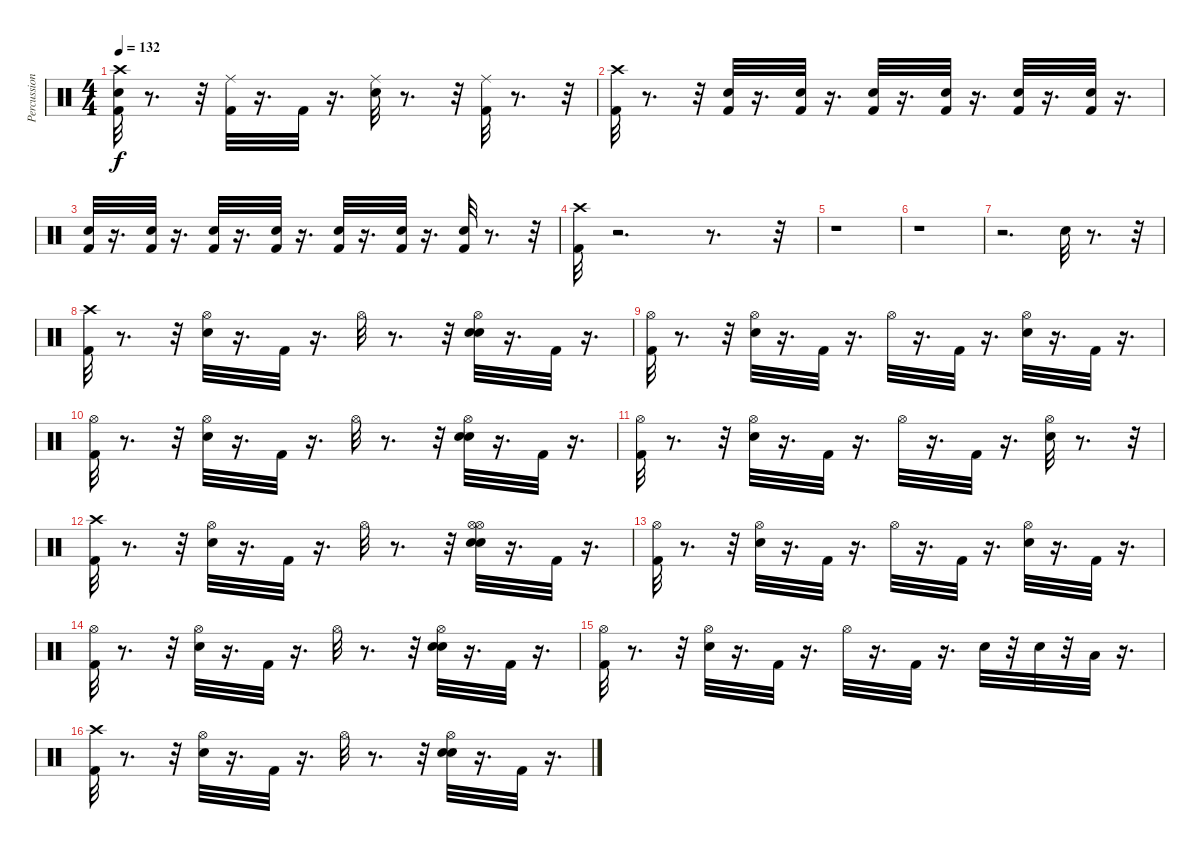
\track ("Percussion" "Percussion") {instrument percussion}
\staff {score}
\articulation defaults
\ts (4 4)
\tempo 132
\clef neutral
\ks c
("Kick (hit) 2" "Snare (hit) 2" "Crash high (hit)").32{dy f} r.8{d} r.32 ("Kick (hit) 2" "Ride (middle)").32 r.16{d} "Kick (hit) 2".32 r.16{d} ("Snare (hit) 2" "Ride (middle)").32 r.8{d} r.32 ("Ride (middle)" "Kick (hit) 2").32 r.8{d} r.32 |
("Kick (hit) 2" "Crash high (hit)").32 r.8{d} r.32 ("Kick (hit) 2" "Snare (hit) 2").32 r.16{d} ("Kick (hit) 2" "Snare (hit) 2").32 r.16{d} ("Kick (hit) 2" "Snare (hit) 2").32 r.16{d} ("Kick (hit) 2" "Snare (hit) 2").32 r.16{d} ("Kick (hit) 2" "Snare (hit) 2").32 r.16{d} ("Kick (hit) 2" "Snare (hit) 2").32 r.16{d} |
("Snare (hit) 2" "Kick (hit) 2").32 r.16{d} ("Kick (hit) 2" "Snare (hit) 2").32 r.16{d} ("Kick (hit) 2" "Snare (hit) 2").32 r.16{d} ("Kick (hit) 2" "Snare (hit) 2").32 r.16{d} ("Snare (hit) 2" "Kick (hit) 2").32 r.16{d} ("Kick (hit) 2" "Snare (hit) 2").32 r.16{d} ("Kick (hit) 2" "Snare (hit) 2").32 r.8{d} r.32 |
("Kick (hit) 2" "Crash high (hit)").32 r.2{d} r.8{d} r.32 |
r.1 |
r.1 |
r.2{d} "Snare (hit) 2".32 r.8{d} r.32 |
("Kick (hit) 2" "Crash high (hit)").32 r.8{d} r.32 ("Snare (hit) 2" "Hi-Hat (open)").32 r.16{d} "Kick (hit) 2".32 r.16{d} "Hi-Hat (open)".32 r.8{d} r.32 ("Snare (hit) 2" "Hi-Hat (open)" "Snare (hit) 2").32 r.16{d} "Kick (hit) 2".32 r.16{d} |
("Kick (hit) 2" "Hi-Hat (open)").32 r.8{d} r.32 ("Snare (hit) 2" "Hi-Hat (open)").32 r.16{d} "Kick (hit) 2".32 r.16{d} "Hi-Hat (open)".32 r.16{d} "Kick (hit) 2".32 r.16{d} ("Hi-Hat (open)" "Snare (hit) 2").32 r.16{d} "Kick (hit) 2".32 r.16{d} |
("Hi-Hat (open)" "Kick (hit) 2").32 r.8{d} r.32 ("Snare (hit) 2" "Hi-Hat (open)").32 r.16{d} "Kick (hit) 2".32 r.16{d} "Hi-Hat (open)".32 r.8{d} r.32 ("Snare (hit) 2" "Hi-Hat (open)" "Snare (hit) 2").32 r.16{d} "Kick (hit) 2".32 r.16{d} |
("Hi-Hat (open)" "Kick (hit) 2").32 r.8{d} r.32 ("Snare (hit) 2" "Hi-Hat (open)").32 r.16{d} "Kick (hit) 2".32 r.16{d} "Hi-Hat (open)".32 r.16{d} "Kick (hit) 2".32 r.16{d} ("Snare (hit) 2" "Hi-Hat (open)").32 r.8{d} r.32 |
("Kick (hit) 2" "Crash high (hit)").32 r.8{d} r.32 ("Snare (hit) 2" "Hi-Hat (open)").32 r.16{d} "Kick (hit) 2".32 r.16{d} "Hi-Hat (open)".32 r.8{d} r.32 ("Snare (hit) 2" "Hi-Hat (open)" "Snare (hit) 2" "Hi-Hat (open)").32 r.16{d} "Kick (hit) 2".32 r.16{d} |
("Kick (hit) 2" "Hi-Hat (open)").32 r.8{d} r.32 ("Snare (hit) 2" "Hi-Hat (open)").32 r.16{d} "Kick (hit) 2".32 r.16{d} "Hi-Hat (open)".32 r.16{d} "Kick (hit) 2".32 r.16{d} ("Snare (hit) 2" "Hi-Hat (open)").32 r.16{d} "Kick (hit) 2".32 r.16{d} |
("Hi-Hat (open)" "Kick (hit) 2").32 r.8{d} r.32 ("Snare (hit) 2" "Hi-Hat (open)").32 r.16{d} "Kick (hit) 2".32 r.16{d} "Hi-Hat (open)".32 r.8{d} r.32 ("Snare (hit) 2" "Snare (hit) 2" "Hi-Hat (open)").32 r.16{d} "Kick (hit) 2".32 r.16{d} |
("Kick (hit) 2" "Hi-Hat (open)").32 r.8{d} r.32 ("Snare (hit) 2" "Hi-Hat (open)").32 r.16{d} "Kick (hit) 2".32 r.16{d} "Hi-Hat (open)".32 r.16{d} "Kick (hit) 2".32 r.16{d} "Snare (hit) 2".32 r.32 "Snare (hit) 2".32 r.32 "Low Floor Tom (hit)".32 r.16{d} |
("Kick (hit) 2" "Crash high (hit)").32 r.8{d} r.32 ("Snare (hit) 2" "Hi-Hat (open)").32 r.16{d} "Kick (hit) 2".32 r.16{d} "Hi-Hat (open)".32 r.8{d} r.32 ("Snare (hit) 2" "Snare (hit) 2" "Hi-Hat (open)").32 r.16{d} "Kick (hit) 2".32 r.16{d}
